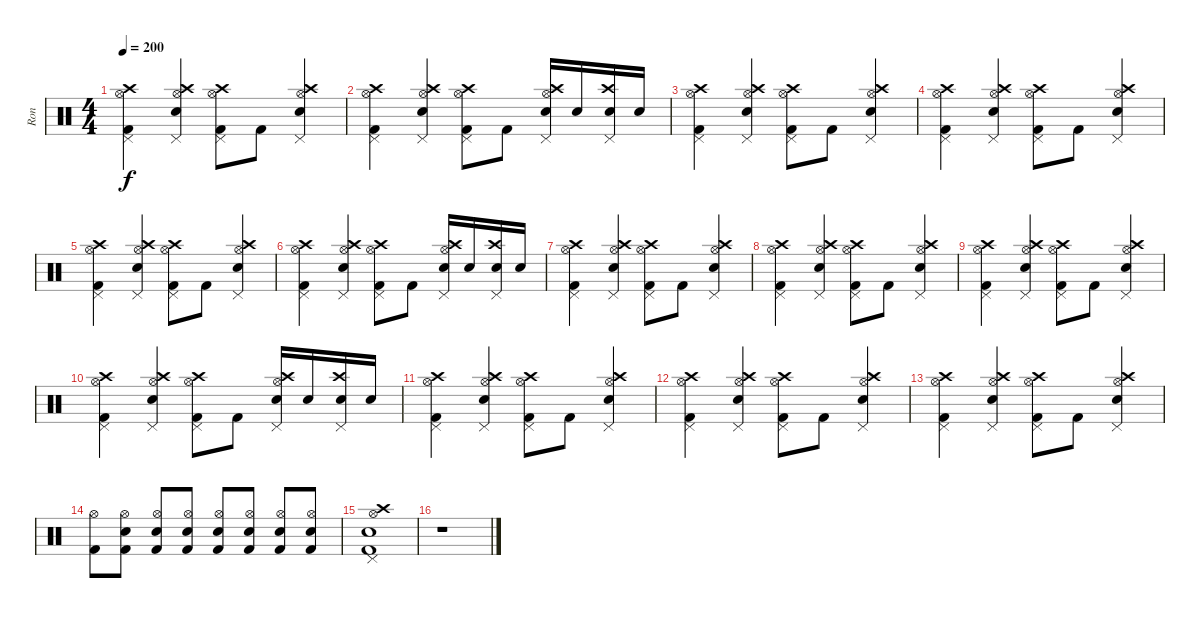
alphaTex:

\track ("Ron" "Ron") {instrument percussion}
\staff {score}
\articulation defaults
\ts (4 4)
\tempo 200
\clef neutral
\ks c
("Pedal Hi-Hat (hit)" "Kick (hit) 2" "Hi-Hat (open)" "Crash high (hit)").4{dy f} ("Electric Snare (hit)" "Pedal Hi-Hat (hit)" "Hi-Hat (open)" "Crash high (hit)").4 ("Pedal Hi-Hat (hit)" "Kick (hit) 2" "Hi-Hat (open)" "Crash high (hit)").8 "Kick (hit) 2".8 ("Electric Snare (hit)" "Pedal Hi-Hat (hit)" "Hi-Hat (open)" "Crash high (hit)").4 |
("Pedal Hi-Hat (hit)" "Kick (hit) 2" "Hi-Hat (open)" "Crash high (hit)").4 ("Electric Snare (hit)" "Pedal Hi-Hat (hit)" "Hi-Hat (open)" "Crash high (hit)").4 ("Pedal Hi-Hat (hit)" "Kick (hit) 2" "Hi-Hat (open)" "Crash high (hit)").8 "Kick (hit) 2".8 ("Electric Snare (hit)" "Pedal Hi-Hat (hit)" "Hi-Hat (open)" "Crash high (hit)").16 "Electric Snare (hit)".16 ("Electric Snare (hit)" "Pedal Hi-Hat (hit)" "Crash high (hit)").16 "Electric Snare (hit)".16 |
("Pedal Hi-Hat (hit)" "Kick (hit) 2" "Hi-Hat (open)" "Crash high (hit)").4 ("Electric Snare (hit)" "Pedal Hi-Hat (hit)" "Hi-Hat (open)" "Crash high (hit)").4 ("Pedal Hi-Hat (hit)" "Kick (hit) 2" "Hi-Hat (open)" "Crash high (hit)").8 "Kick (hit) 2".8 ("Electric Snare (hit)" "Pedal Hi-Hat (hit)" "Hi-Hat (open)" "Crash high (hit)").4 |
("Pedal Hi-Hat (hit)" "Kick (hit) 2" "Hi-Hat (open)" "Crash high (hit)").4 ("Electric Snare (hit)" "Pedal Hi-Hat (hit)" "Hi-Hat (open)" "Crash high (hit)").4 ("Pedal Hi-Hat (hit)" "Kick (hit) 2" "Hi-Hat (open)" "Crash high (hit)").8 "Kick (hit) 2".8 ("Electric Snare (hit)" "Pedal Hi-Hat (hit)" "Hi-Hat (open)" "Crash high (hit)").4 |
("Pedal Hi-Hat (hit)" "Kick (hit) 2" "Hi-Hat (open)" "Crash high (hit)").4 ("Electric Snare (hit)" "Pedal Hi-Hat (hit)" "Hi-Hat (open)" "Crash high (hit)").4 ("Pedal Hi-Hat (hit)" "Kick (hit) 2" "Hi-Hat (open)" "Crash high (hit)").8 "Kick (hit) 2".8 ("Electric Snare (hit)" "Pedal Hi-Hat (hit)" "Hi-Hat (open)" "Crash high (hit)").4 |
("Pedal Hi-Hat (hit)" "Kick (hit) 2" "Hi-Hat (open)" "Crash high (hit)").4 ("Electric Snare (hit)" "Pedal Hi-Hat (hit)" "Hi-Hat (open)" "Crash high (hit)").4 ("Pedal Hi-Hat (hit)" "Kick (hit) 2" "Hi-Hat (open)" "Crash high (hit)").8 "Kick (hit) 2".8 ("Electric Snare (hit)" "Pedal Hi-Hat (hit)" "Hi-Hat (open)" "Crash high (hit)").16 "Electric Snare (hit)".16 ("Electric Snare (hit)" "Pedal Hi-Hat (hit)" "Crash high (hit)").16 "Electric Snare (hit)".16 |
("Pedal Hi-Hat (hit)" "Kick (hit) 2" "Hi-Hat (open)" "Crash high (hit)").4 ("Electric Snare (hit)" "Pedal Hi-Hat (hit)" "Hi-Hat (open)" "Crash high (hit)").4 ("Pedal Hi-Hat (hit)" "Kick (hit) 2" "Hi-Hat (open)" "Crash high (hit)").8 "Kick (hit) 2".8 ("Electric Snare (hit)" "Pedal Hi-Hat (hit)" "Hi-Hat (open)" "Crash high (hit)").4 |
("Pedal Hi-Hat (hit)" "Kick (hit) 2" "Hi-Hat (open)" "Crash high (hit)").4 ("Electric Snare (hit)" "Pedal Hi-Hat (hit)" "Hi-Hat (open)" "Crash high (hit)").4 ("Pedal Hi-Hat (hit)" "Kick (hit) 2" "Hi-Hat (open)" "Crash high (hit)").8 "Kick (hit) 2".8 ("Electric Snare (hit)" "Pedal Hi-Hat (hit)" "Hi-Hat (open)" "Crash high (hit)").4 |
("Pedal Hi-Hat (hit)" "Kick (hit) 2" "Hi-Hat (open)" "Crash high (hit)").4 ("Electric Snare (hit)" "Pedal Hi-Hat (hit)" "Hi-Hat (open)" "Crash high (hit)").4 ("Pedal Hi-Hat (hit)" "Kick (hit) 2" "Hi-Hat (open)" "Crash high (hit)").8 "Kick (hit) 2".8 ("Electric Snare (hit)" "Pedal Hi-Hat (hit)" "Hi-Hat (open)" "Crash high (hit)").4 |
("Pedal Hi-Hat (hit)" "Kick (hit) 2" "Hi-Hat (open)" "Crash high (hit)").4 ("Electric Snare (hit)" "Pedal Hi-Hat (hit)" "Hi-Hat (open)" "Crash high (hit)").4 ("Pedal Hi-Hat (hit)" "Kick (hit) 2" "Hi-Hat (open)" "Crash high (hit)").8 "Kick (hit) 2".8 ("Electric Snare (hit)" "Pedal Hi-Hat (hit)" "Hi-Hat (open)" "Crash high (hit)").16 "Electric Snare (hit)".16 ("Electric Snare (hit)" "Pedal Hi-Hat (hit)" "Crash high (hit)").16 "Electric Snare (hit)".16 |
("Pedal Hi-Hat (hit)" "Kick (hit) 2" "Hi-Hat (open)" "Crash high (hit)").4 ("Electric Snare (hit)" "Pedal Hi-Hat (hit)" "Hi-Hat (open)" "Crash high (hit)").4 ("Pedal Hi-Hat (hit)" "Kick (hit) 2" "Hi-Hat (open)" "Crash high (hit)").8 "Kick (hit) 2".8 ("Electric Snare (hit)" "Pedal Hi-Hat (hit)" "Hi-Hat (open)" "Crash high (hit)").4 |
("Pedal Hi-Hat (hit)" "Kick (hit) 2" "Hi-Hat (open)" "Crash high (hit)").4 ("Electric Snare (hit)" "Pedal Hi-Hat (hit)" "Hi-Hat (open)" "Crash high (hit)").4 ("Pedal Hi-Hat (hit)" "Kick (hit) 2" "Hi-Hat (open)" "Crash high (hit)").8 "Kick (hit) 2".8 ("Electric Snare (hit)" "Pedal Hi-Hat (hit)" "Hi-Hat (open)" "Crash high (hit)").4 |
("Pedal Hi-Hat (hit)" "Kick (hit) 2" "Hi-Hat (open)" "Crash high (hit)").4 ("Electric Snare (hit)" "Pedal Hi-Hat (hit)" "Hi-Hat (open)" "Crash high (hit)").4 ("Pedal Hi-Hat (hit)" "Kick (hit) 2" "Hi-Hat (open)" "Crash high (hit)").8 "Kick (hit) 2".8 ("Electric Snare (hit)" "Pedal Hi-Hat (hit)" "Hi-Hat (open)" "Crash high (hit)").4 |
("Hi-Hat (open)" "Kick (hit) 2").8 ("Electric Snare (hit)" "Hi-Hat (open)" "Kick (hit) 2").8 ("Electric Snare (hit)" "Hi-Hat (open)" "Kick (hit) 2").8 ("Electric Snare (hit)" "Hi-Hat (open)" "Kick (hit) 2").8 ("Electric Snare (hit)" "Hi-Hat (open)" "Kick (hit) 2").8 ("Electric Snare (hit)" "Hi-Hat (open)" "Kick (hit) 2").8 ("Electric Snare (hit)" "Hi-Hat (open)" "Kick (hit) 2").8 ("Electric Snare (hit)" "Hi-Hat (open)" "Kick (hit) 2").8 |
("Crash high (hit)" "Pedal Hi-Hat (hit)" "Hi-Hat (open)" "Electric Snare (hit)" "Kick (hit) 2").1 |
r.1
